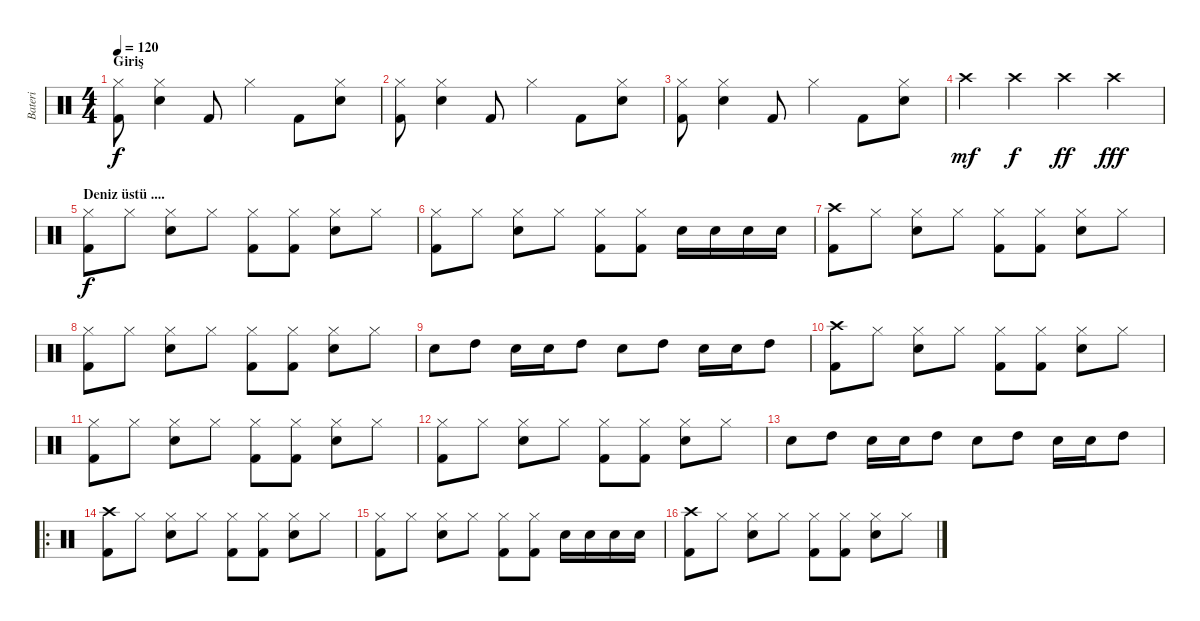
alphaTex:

\track ("Bateri" "Bateri") {instrument percussion}
\staff {score}
\articulation defaults
\ts (4 4)
\section ("" "Giriş")
\tempo 120
\tempo 45
\tempo 120
\clef neutral
\ks c
("Hi-Hat (closed)" "Kick (hit) 2").8{dy f volume 0} ("Hi-Hat (closed)" "Electric Snare (hit)").4{volume 16} "Kick (hit) 2".8 "Hi-Hat (closed)".4 "Kick (hit) 2".8 ("Hi-Hat (closed)" "Electric Snare (hit)").8 |
("Hi-Hat (closed)" "Kick (hit) 2").8 ("Hi-Hat (closed)" "Electric Snare (hit)").4 "Kick (hit) 2".8 "Hi-Hat (closed)".4 "Kick (hit) 2".8 ("Hi-Hat (closed)" "Electric Snare (hit)").8 |
("Hi-Hat (closed)" "Kick (hit) 2").8 ("Hi-Hat (closed)" "Electric Snare (hit)").4 "Kick (hit) 2".8 "Hi-Hat (closed)".4 "Kick (hit) 2".8 ("Hi-Hat (closed)" "Electric Snare (hit)").8 |
"Crash high (hit)".4{dy mf} "Crash high (hit)".4{dy f} "Crash high (hit)".4{dy ff} "Crash high (hit)".4{dy fff} |
\section ("" "Deniz üstü ....")
("Hi-Hat (closed)" "Kick (hit) 2").8{dy f} "Hi-Hat (closed)".8 ("Hi-Hat (closed)" "Electric Snare (hit)").8 "Hi-Hat (closed)".8 ("Hi-Hat (closed)" "Kick (hit) 2").8 ("Hi-Hat (closed)" "Kick (hit) 2").8 ("Hi-Hat (closed)" "Electric Snare (hit)").8 "Hi-Hat (closed)".8 |
("Hi-Hat (closed)" "Kick (hit) 2").8 "Hi-Hat (closed)".8 ("Hi-Hat (closed)" "Electric Snare (hit)").8 "Hi-Hat (closed)".8 ("Hi-Hat (closed)" "Kick (hit) 2").8 ("Hi-Hat (closed)" "Kick (hit) 2").8 "Electric Snare (hit)".16 "Electric Snare (hit)".16 "Electric Snare (hit)".16 "Electric Snare (hit)".16 |
("Crash high (hit)" "Kick (hit) 2").8 "Hi-Hat (closed)".8 ("Hi-Hat (closed)" "Electric Snare (hit)").8 "Hi-Hat (closed)".8 ("Hi-Hat (closed)" "Kick (hit) 2").8 ("Hi-Hat (closed)" "Kick (hit) 2").8 ("Hi-Hat (closed)" "Electric Snare (hit)").8 "Hi-Hat (closed)".8 |
("Hi-Hat (closed)" "Kick (hit) 2").8 "Hi-Hat (closed)".8 ("Hi-Hat (closed)" "Electric Snare (hit)").8 "Hi-Hat (closed)".8 ("Hi-Hat (closed)" "Kick (hit) 2").8 ("Hi-Hat (closed)" "Kick (hit) 2").8 ("Hi-Hat (closed)" "Electric Snare (hit)").8 "Hi-Hat (closed)".8 |
"Electric Snare (hit)".8 "High Tom (hit)".8 "Electric Snare (hit)".16 "Electric Snare (hit)".16 "High Tom (hit)".8 "Electric Snare (hit)".8 "High Tom (hit)".8 "Electric Snare (hit)".16 "Electric Snare (hit)".16 "High Tom (hit)".8 |
("Crash high (hit)" "Kick (hit) 2").8 "Hi-Hat (closed)".8 ("Hi-Hat (closed)" "Electric Snare (hit)").8 "Hi-Hat (closed)".8 ("Hi-Hat (closed)" "Kick (hit) 2").8 ("Hi-Hat (closed)" "Kick (hit) 2").8 ("Hi-Hat (closed)" "Electric Snare (hit)").8 "Hi-Hat (closed)".8 |
("Hi-Hat (closed)" "Kick (hit) 2").8 "Hi-Hat (closed)".8 ("Hi-Hat (closed)" "Electric Snare (hit)").8 "Hi-Hat (closed)".8 ("Hi-Hat (closed)" "Kick (hit) 2").8 ("Hi-Hat (closed)" "Kick (hit) 2").8 ("Hi-Hat (closed)" "Electric Snare (hit)").8 "Hi-Hat (closed)".8 |
("Hi-Hat (closed)" "Kick (hit) 2").8 "Hi-Hat (closed)".8 ("Hi-Hat (closed)" "Electric Snare (hit)").8 "Hi-Hat (closed)".8 ("Hi-Hat (closed)" "Kick (hit) 2").8 ("Hi-Hat (closed)" "Kick (hit) 2").8 ("Hi-Hat (closed)" "Electric Snare (hit)").8 "Hi-Hat (closed)".8 |
"Electric Snare (hit)".8 "High Tom (hit)".8 "Electric Snare (hit)".16 "Electric Snare (hit)".16 "High Tom (hit)".8 "Electric Snare (hit)".8 "High Tom (hit)".8 "Electric Snare (hit)".16 "Electric Snare (hit)".16 "High Tom (hit)".8 |
\ro
("Crash high (hit)" "Kick (hit) 2").8 "Hi-Hat (closed)".8 ("Hi-Hat (closed)" "Electric Snare (hit)").8 "Hi-Hat (closed)".8 ("Hi-Hat (closed)" "Kick (hit) 2").8 ("Hi-Hat (closed)" "Kick (hit) 2").8 ("Hi-Hat (closed)" "Electric Snare (hit)").8 "Hi-Hat (closed)".8 |
("Hi-Hat (closed)" "Kick (hit) 2").8 "Hi-Hat (closed)".8 ("Hi-Hat (closed)" "Electric Snare (hit)").8 "Hi-Hat (closed)".8 ("Hi-Hat (closed)" "Kick (hit) 2").8 ("Hi-Hat (closed)" "Kick (hit) 2").8 "Electric Snare (hit)".16 "Electric Snare (hit)".16 "Electric Snare (hit)".16 "Electric Snare (hit)".16 |
("Crash high (hit)" "Kick (hit) 2").8 "Hi-Hat (closed)".8 ("Hi-Hat (closed)" "Electric Snare (hit)").8 "Hi-Hat (closed)".8 ("Hi-Hat (closed)" "Kick (hit) 2").8 ("Hi-Hat (closed)" "Kick (hit) 2").8 ("Hi-Hat (closed)" "Electric Snare (hit)").8 "Hi-Hat (closed)".8
